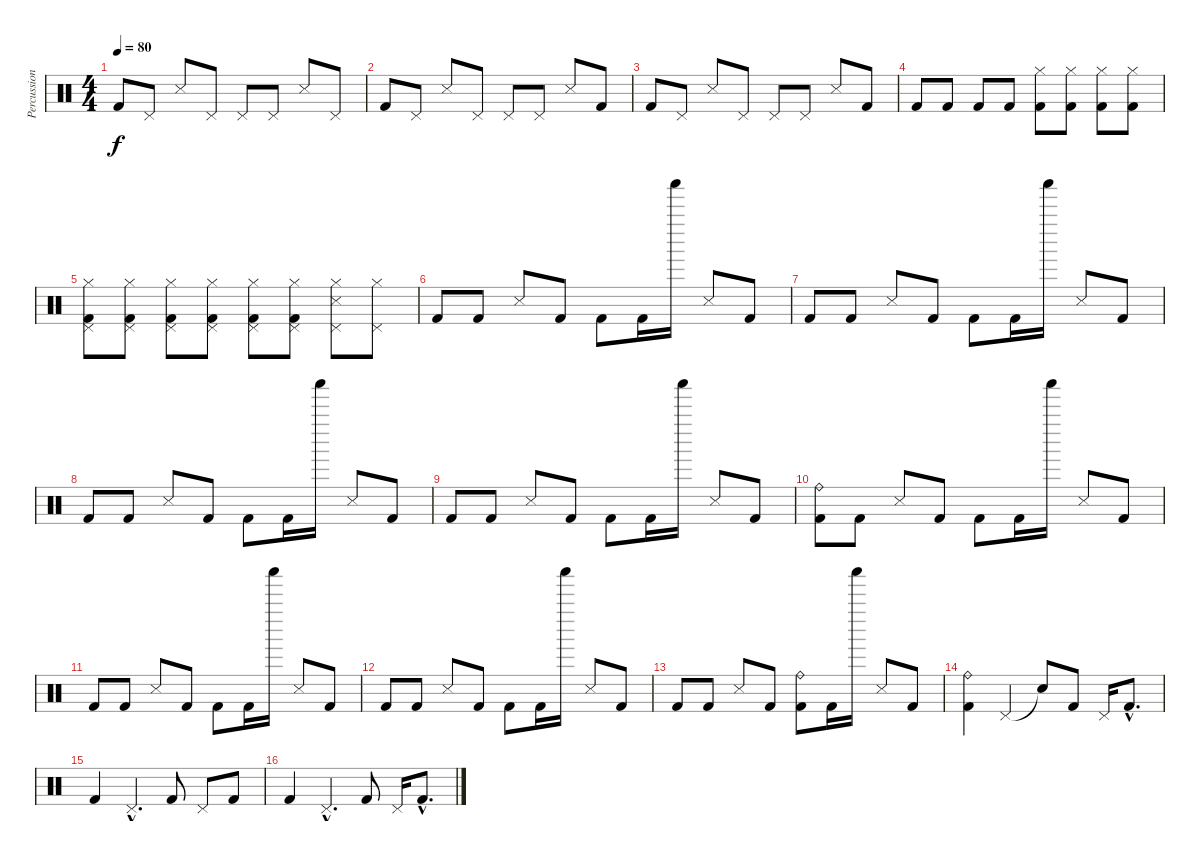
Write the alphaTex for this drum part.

\track ("Percussions" "Percussion") {instrument percussion}
\staff {score}
\articulation defaults
\ts (4 4)
\tempo 80
\clef neutral
\ks c "Kick (hit) 2".8{dy f} "Pedal Hi-Hat (hit)".8 "Snare (side stick) 3".8 "Pedal Hi-Hat (hit)".8 "Pedal Hi-Hat (hit)".8 "Pedal Hi-Hat (hit)".8 "Snare (side stick) 3".8 "Pedal Hi-Hat (hit)".8
|
"Kick (hit) 2".8 "Pedal Hi-Hat (hit)".8 "Snare (side stick) 3".8 "Pedal Hi-Hat (hit)".8 "Pedal Hi-Hat (hit)".8 "Pedal Hi-Hat (hit)".8 "Snare (side stick) 3".8 "Kick (hit) 2".8 |
"Kick (hit) 2".8 "Pedal Hi-Hat (hit)".8 "Snare (side stick) 3".8 "Pedal Hi-Hat (hit)".8 "Pedal Hi-Hat (hit)".8 "Pedal Hi-Hat (hit)".8 "Snare (side stick) 3".8 "Kick (hit) 2".8 |
"Kick (hit) 2".8 "Kick (hit) 2".8 "Kick (hit) 2".8 "Kick (hit) 2".8 ("Hi-Hat (closed)" "Kick (hit) 2").8 ("Hi-Hat (closed)" "Kick (hit) 2").8 ("Hi-Hat (closed)" "Kick (hit) 2").8 ("Hi-Hat (closed)" "Kick (hit) 2").8 |
("Pedal Hi-Hat (hit)" "Hi-Hat (closed)" "Kick (hit) 2").8 ("Pedal Hi-Hat (hit)" "Hi-Hat (closed)" "Kick (hit) 2").8 ("Pedal Hi-Hat (hit)" "Hi-Hat (closed)" "Kick (hit) 2").8 ("Pedal Hi-Hat (hit)" "Hi-Hat (closed)" "Kick (hit) 2").8 ("Pedal Hi-Hat (hit)" "Hi-Hat (closed)" "Kick (hit) 2").8 ("Pedal Hi-Hat (hit)" "Hi-Hat (closed)" "Kick (hit) 2").8 ("Pedal Hi-Hat (hit)" "Snare (side stick) 3" "Hi-Hat (closed)").8 ("Pedal Hi-Hat (hit)" "Hi-Hat (closed)").8 |
"Kick (hit) 2".8 "Kick (hit) 2".8 "Snare (side stick) 3".8 "Kick (hit) 2".8 "Kick (hit) 2".8 "Kick (hit) 2".16 "Shaker (hit)".16 "Snare (side stick) 3".8 "Kick (hit) 2".8 |
"Kick (hit) 2".8 "Kick (hit) 2".8 "Snare (side stick) 3".8 "Kick (hit) 2".8 "Kick (hit) 2".8 "Kick (hit) 2".16 "Shaker (hit)".16 "Snare (side stick) 3".8 "Kick (hit) 2".8 |
"Kick (hit) 2".8 "Kick (hit) 2".8 "Snare (side stick) 3".8 "Kick (hit) 2".8 "Kick (hit) 2".8 "Kick (hit) 2".16 "Shaker (hit)".16 "Snare (side stick) 3".8 "Kick (hit) 2".8 |
"Kick (hit) 2".8 "Kick (hit) 2".8 "Snare (side stick) 3".8 "Kick (hit) 2".8 "Kick (hit) 2".8 "Kick (hit) 2".16 "Shaker (hit)".16 "Snare (side stick) 3".8 "Kick (hit) 2".8 |
("Ride (bell)" "Kick (hit) 2").8 "Kick (hit) 2".8 "Snare (side stick) 3".8 "Kick (hit) 2".8 "Kick (hit) 2".8 "Kick (hit) 2".16 "Shaker (hit)".16 "Snare (side stick) 3".8 "Kick (hit) 2".8 |
"Kick (hit) 2".8 "Kick (hit) 2".8 "Snare (side stick) 3".8 "Kick (hit) 2".8 "Kick (hit) 2".8 "Kick (hit) 2".16 "Shaker (hit)".16 "Snare (side stick) 3".8 "Kick (hit) 2".8 |
"Kick (hit) 2".8 "Kick (hit) 2".8 "Snare (side stick) 3".8 "Kick (hit) 2".8 "Kick (hit) 2".8 "Kick (hit) 2".16 "Shaker (hit)".16 "Snare (side stick) 3".8 "Kick (hit) 2".8 |
"Kick (hit) 2".8 "Kick (hit) 2".8 "Snare (side stick) 3".8 "Kick (hit) 2".8 ("Ride (bell)" "Kick (hit) 2").8 "Kick (hit) 2".16 "Shaker (hit)".16 "Snare (side stick) 3".8 "Kick (hit) 2".8 |
("Ride (bell)" "Kick (hit) 2").4 "Pedal Hi-Hat (hit)".4 "Snare (hit)"{t}.8 "Kick (hit) 2".8 "Pedal Hi-Hat (hit)".16 "Kick (hit) 2"{hac}.8{d} |
"Kick (hit) 2".4 "Pedal Hi-Hat (hit)"{hac}.4{d} "Kick (hit) 2".8 "Pedal Hi-Hat (hit)".8 "Kick (hit) 2".8 |
"Kick (hit) 2".4 "Pedal Hi-Hat (hit)"{hac}.4{d} "Kick (hit) 2".8 "Pedal Hi-Hat (hit)".16 "Kick (hit) 2"{hac}.8{d}
